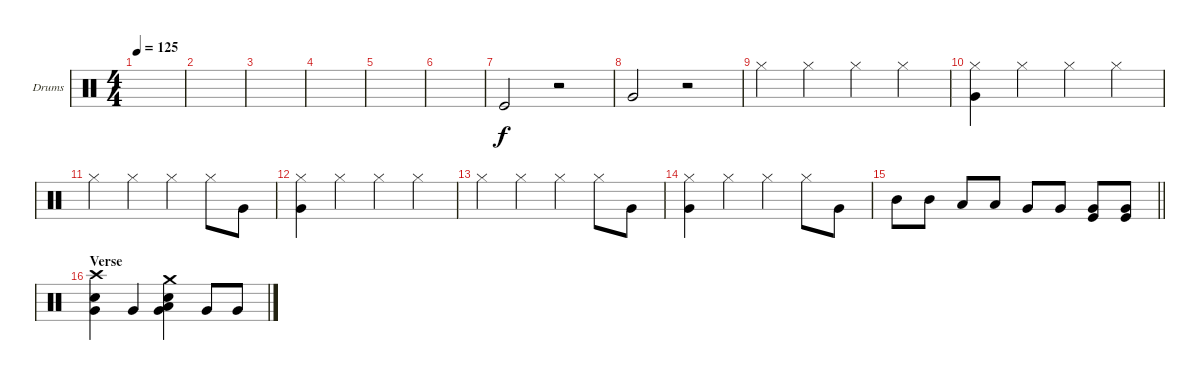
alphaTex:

\defaultSystemsLayout 4
\bracketExtendMode groupsimilarinstruments
\firstSystemTrackNameOrientation horizontal
\otherSystemsTrackNameOrientation horizontal
\chordDiagramsInScore
\track ("Drumkit" "Drums") {instrument percussion}
\staff {score}
\articulation defaults
\ts (4 4)
\tempo 125
\clef neutral
\scale
0.333333
\ks c
|
\scale
0.333333 |
\scale
0.333333 |
\scale
0.333333 |
\scale
0.333333 |
\scale
0.333333 |
\scale
0.333333 "Kick (hit)".2 r.2 |
\scale
0.333333 "Very Low Tom (hit)".2 r.2 |
\scale
0.333333 "Hi-Hat (closed)".4 "Hi-Hat (closed)".4 "Hi-Hat (closed)".4 "Hi-Hat (closed)".4 |
\scale
0.333333 ("Hi-Hat (closed)" "Very Low Tom (hit)").4 "Hi-Hat (closed)".4 "Hi-Hat (closed)".4 "Hi-Hat (closed)".4 |
\scale
0.333333 "Hi-Hat (closed)".4 "Hi-Hat (closed)".4 "Hi-Hat (closed)".4 "Hi-Hat (closed)".8 "Very Low Tom (hit)".8 |
\scale
0.333333 ("Hi-Hat (closed)" "Very Low Tom (hit)").4 "Hi-Hat (closed)".4 "Hi-Hat (closed)".4 "Hi-Hat (closed)".4 |
\scale
0.333333 "Hi-Hat (closed)".4 "Hi-Hat (closed)".4 "Hi-Hat (closed)".4 "Hi-Hat (closed)".8 "Very Low Tom (hit)".8 |
\scale
0.333333 ("Hi-Hat (closed)" "Very Low Tom (hit)").4 "Hi-Hat (closed)".4 "Hi-Hat (closed)".4 "Hi-Hat (closed)".8 "Very Low Tom (hit)".8 |
\scale
0.333333
\barLineRight lightlight "Mid Tom (hit)".8 "Mid Tom (hit)".8 "Low Tom (hit)".8 "Low Tom (hit)".8 "Very Low Tom (hit)".8 "Very Low Tom (hit)".8
("Very Low Tom (hit)" "Kick (hit)").8 ("Very Low Tom (hit)" "Kick (hit)").8 |
\section ("" "Verse")
\scale
0.333333 ("Very Low Tom (hit)" "Snare (hit) 2" "Crash high (hit)").4 "Very Low Tom (hit)".4 ("Very Low Tom (hit)" "Low Tom (hit)" "Snare (hit) 2" "Crash medium (hit)").4 "Very Low Tom (hit)".8 "Very Low Tom (hit)".8
